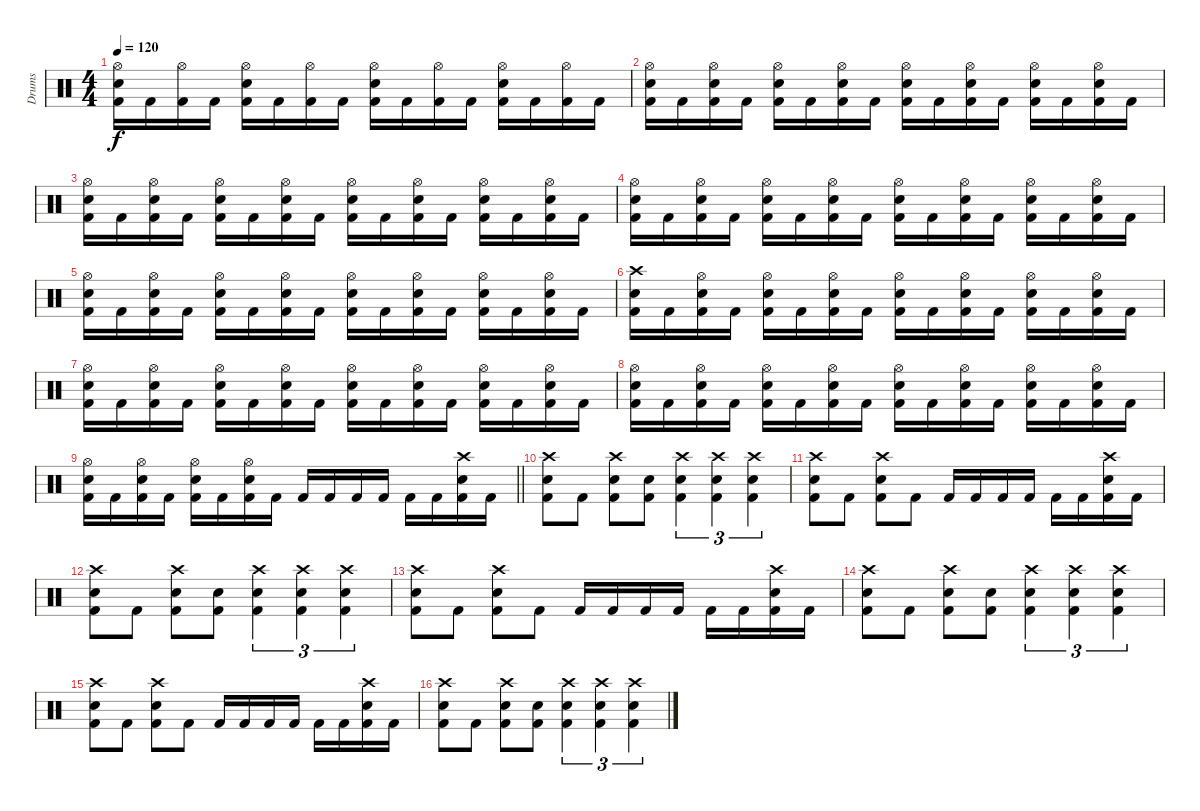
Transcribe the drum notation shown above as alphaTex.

\track ("Drums" "Drums") {instrument percussion}
\staff {score}
\articulation defaults
\ts (4 4)
\tempo 120
\clef neutral
\ks c
("Hi-Hat (open)" "Electric Snare (hit)" "Kick (hit) 2").16{dy f} "Kick (hit) 2".16 ("Hi-Hat (open)" "Kick (hit) 2").16 "Kick (hit) 2".16 ("Hi-Hat (open)" "Electric Snare (hit)" "Kick (hit) 2").16 "Kick (hit) 2".16 ("Hi-Hat (open)" "Kick (hit) 2").16 "Kick (hit) 2".16 ("Hi-Hat (open)" "Electric Snare (hit)" "Kick (hit) 2").16 "Kick (hit) 2".16 ("Hi-Hat (open)" "Kick (hit) 2").16 "Kick (hit) 2".16 ("Hi-Hat (open)" "Electric Snare (hit)" "Kick (hit) 2").16 "Kick (hit) 2".16 ("Hi-Hat (open)" "Kick (hit) 2").16 "Kick (hit) 2".16 |
("Hi-Hat (open)" "Electric Snare (hit)" "Kick (hit) 2").16 "Kick (hit) 2".16 ("Hi-Hat (open)" "Electric Snare (hit)" "Kick (hit) 2").16 "Kick (hit) 2".16 ("Hi-Hat (open)" "Electric Snare (hit)" "Kick (hit) 2").16 "Kick (hit) 2".16 ("Hi-Hat (open)" "Electric Snare (hit)" "Kick (hit) 2").16 "Kick (hit) 2".16 ("Hi-Hat (open)" "Electric Snare (hit)" "Kick (hit) 2").16 "Kick (hit) 2".16 ("Hi-Hat (open)" "Electric Snare (hit)" "Kick (hit) 2").16 "Kick (hit) 2".16 ("Hi-Hat (open)" "Electric Snare (hit)" "Kick (hit) 2").16 "Kick (hit) 2".16 ("Hi-Hat (open)" "Electric Snare (hit)" "Kick (hit) 2").16 "Kick (hit) 2".16 |
("Hi-Hat (open)" "Electric Snare (hit)" "Kick (hit) 2").16 "Kick (hit) 2".16 ("Hi-Hat (open)" "Electric Snare (hit)" "Kick (hit) 2").16 "Kick (hit) 2".16 ("Hi-Hat (open)" "Electric Snare (hit)" "Kick (hit) 2").16 "Kick (hit) 2".16 ("Hi-Hat (open)" "Electric Snare (hit)" "Kick (hit) 2").16 "Kick (hit) 2".16 ("Hi-Hat (open)" "Electric Snare (hit)" "Kick (hit) 2").16 "Kick (hit) 2".16 ("Hi-Hat (open)" "Electric Snare (hit)" "Kick (hit) 2").16 "Kick (hit) 2".16 ("Hi-Hat (open)" "Electric Snare (hit)" "Kick (hit) 2").16 "Kick (hit) 2".16 ("Hi-Hat (open)" "Electric Snare (hit)" "Kick (hit) 2").16 "Kick (hit) 2".16 |
("Hi-Hat (open)" "Electric Snare (hit)" "Kick (hit) 2").16 "Kick (hit) 2".16 ("Hi-Hat (open)" "Electric Snare (hit)" "Kick (hit) 2").16 "Kick (hit) 2".16 ("Hi-Hat (open)" "Electric Snare (hit)" "Kick (hit) 2").16 "Kick (hit) 2".16 ("Hi-Hat (open)" "Electric Snare (hit)" "Kick (hit) 2").16 "Kick (hit) 2".16 ("Hi-Hat (open)" "Electric Snare (hit)" "Kick (hit) 2").16 "Kick (hit) 2".16 ("Hi-Hat (open)" "Electric Snare (hit)" "Kick (hit) 2").16 "Kick (hit) 2".16 ("Hi-Hat (open)" "Electric Snare (hit)" "Kick (hit) 2").16 "Kick (hit) 2".16 ("Hi-Hat (open)" "Electric Snare (hit)" "Kick (hit) 2").16 "Kick (hit) 2".16 |
("Hi-Hat (open)" "Electric Snare (hit)" "Kick (hit) 2").16 "Kick (hit) 2".16 ("Hi-Hat (open)" "Electric Snare (hit)" "Kick (hit) 2").16 "Kick (hit) 2".16 ("Hi-Hat (open)" "Electric Snare (hit)" "Kick (hit) 2").16 "Kick (hit) 2".16 ("Hi-Hat (open)" "Electric Snare (hit)" "Kick (hit) 2").16 "Kick (hit) 2".16 ("Hi-Hat (open)" "Electric Snare (hit)" "Kick (hit) 2").16 "Kick (hit) 2".16 ("Hi-Hat (open)" "Electric Snare (hit)" "Kick (hit) 2").16 "Kick (hit) 2".16 ("Hi-Hat (open)" "Electric Snare (hit)" "Kick (hit) 2").16 "Kick (hit) 2".16 ("Hi-Hat (open)" "Electric Snare (hit)" "Kick (hit) 2").16 "Kick (hit) 2".16 |
("Crash high (hit)" "Electric Snare (hit)" "Kick (hit) 2").16 "Kick (hit) 2".16 ("Hi-Hat (open)" "Electric Snare (hit)" "Kick (hit) 2").16 "Kick (hit) 2".16 ("Hi-Hat (open)" "Electric Snare (hit)" "Kick (hit) 2").16 "Kick (hit) 2".16 ("Hi-Hat (open)" "Electric Snare (hit)" "Kick (hit) 2").16 "Kick (hit) 2".16 ("Hi-Hat (open)" "Electric Snare (hit)" "Kick (hit) 2").16 "Kick (hit) 2".16 ("Hi-Hat (open)" "Electric Snare (hit)" "Kick (hit) 2").16 "Kick (hit) 2".16 ("Hi-Hat (open)" "Electric Snare (hit)" "Kick (hit) 2").16 "Kick (hit) 2".16 ("Hi-Hat (open)" "Electric Snare (hit)" "Kick (hit) 2").16 "Kick (hit) 2".16 |
("Hi-Hat (open)" "Electric Snare (hit)" "Kick (hit) 2").16 "Kick (hit) 2".16 ("Hi-Hat (open)" "Electric Snare (hit)" "Kick (hit) 2").16 "Kick (hit) 2".16 ("Hi-Hat (open)" "Electric Snare (hit)" "Kick (hit) 2").16 "Kick (hit) 2".16 ("Hi-Hat (open)" "Electric Snare (hit)" "Kick (hit) 2").16 "Kick (hit) 2".16 ("Hi-Hat (open)" "Electric Snare (hit)" "Kick (hit) 2").16 "Kick (hit) 2".16 ("Hi-Hat (open)" "Electric Snare (hit)" "Kick (hit) 2").16 "Kick (hit) 2".16 ("Hi-Hat (open)" "Electric Snare (hit)" "Kick (hit) 2").16 "Kick (hit) 2".16 ("Hi-Hat (open)" "Electric Snare (hit)" "Kick (hit) 2").16 "Kick (hit) 2".16 |
("Hi-Hat (open)" "Electric Snare (hit)" "Kick (hit) 2").16 "Kick (hit) 2".16 ("Hi-Hat (open)" "Electric Snare (hit)" "Kick (hit) 2").16 "Kick (hit) 2".16 ("Hi-Hat (open)" "Electric Snare (hit)" "Kick (hit) 2").16 "Kick (hit) 2".16 ("Hi-Hat (open)" "Electric Snare (hit)" "Kick (hit) 2").16 "Kick (hit) 2".16 ("Hi-Hat (open)" "Electric Snare (hit)" "Kick (hit) 2").16 "Kick (hit) 2".16 ("Hi-Hat (open)" "Electric Snare (hit)" "Kick (hit) 2").16 "Kick (hit) 2".16 ("Hi-Hat (open)" "Electric Snare (hit)" "Kick (hit) 2").16 "Kick (hit) 2".16 ("Hi-Hat (open)" "Electric Snare (hit)" "Kick (hit) 2").16 "Kick (hit) 2".16 |
\barLineRight lightlight
("Hi-Hat (open)" "Electric Snare (hit)" "Kick (hit) 2").16 "Kick (hit) 2".16 ("Hi-Hat (open)" "Electric Snare (hit)" "Kick (hit) 2").16 "Kick (hit) 2".16 ("Hi-Hat (open)" "Electric Snare (hit)" "Kick (hit) 2").16 "Kick (hit) 2".16 ("Hi-Hat (open)" "Electric Snare (hit)" "Kick (hit) 2").16 "Kick (hit) 2".16 "Kick (hit) 2".16 "Kick (hit) 2".16 "Kick (hit) 2".16 "Kick (hit) 2".16 "Kick (hit) 2".16 "Kick (hit) 2".16 ("Crash high (hit)" "Electric Snare (hit)" "Kick (hit) 2").16 "Kick (hit) 2".16 |
("Crash high (hit)" "Electric Snare (hit)" "Kick (hit) 2").8 "Kick (hit) 2".8 ("Crash high (hit)" "Electric Snare (hit)" "Kick (hit) 2").8 ("Electric Snare (hit)" "Kick (hit) 2").8 ("Crash high (hit)" "Electric Snare (hit)" "Kick (hit) 2").4{tu (3 2)} ("Crash high (hit)" "Electric Snare (hit)" "Kick (hit) 2").4{tu (3 2)} ("Crash high (hit)" "Electric Snare (hit)" "Kick (hit) 2").4{tu (3 2)} |
("Crash high (hit)" "Electric Snare (hit)" "Kick (hit) 2").8 "Kick (hit) 2".8 ("Crash high (hit)" "Electric Snare (hit)" "Kick (hit) 2").8 "Kick (hit) 2".8 "Kick (hit) 2".16 "Kick (hit) 2".16 "Kick (hit) 2".16 "Kick (hit) 2".16 "Kick (hit) 2".16 "Kick (hit) 2".16 ("Crash high (hit)" "Electric Snare (hit)" "Kick (hit) 2").16 "Kick (hit) 2".16 |
("Crash high (hit)" "Electric Snare (hit)" "Kick (hit) 2").8 "Kick (hit) 2".8 ("Crash high (hit)" "Electric Snare (hit)" "Kick (hit) 2").8 ("Electric Snare (hit)" "Kick (hit) 2").8 ("Crash high (hit)" "Electric Snare (hit)" "Kick (hit) 2").4{tu (3 2)} ("Crash high (hit)" "Electric Snare (hit)" "Kick (hit) 2").4{tu (3 2)} ("Crash high (hit)" "Electric Snare (hit)" "Kick (hit) 2").4{tu (3 2)} |
("Crash high (hit)" "Electric Snare (hit)" "Kick (hit) 2").8 "Kick (hit) 2".8 ("Crash high (hit)" "Electric Snare (hit)" "Kick (hit) 2").8 "Kick (hit) 2".8 "Kick (hit) 2".16 "Kick (hit) 2".16 "Kick (hit) 2".16 "Kick (hit) 2".16 "Kick (hit) 2".16 "Kick (hit) 2".16 ("Crash high (hit)" "Electric Snare (hit)" "Kick (hit) 2").16 "Kick (hit) 2".16 |
("Crash high (hit)" "Electric Snare (hit)" "Kick (hit) 2").8 "Kick (hit) 2".8 ("Crash high (hit)" "Electric Snare (hit)" "Kick (hit) 2").8 ("Electric Snare (hit)" "Kick (hit) 2").8 ("Crash high (hit)" "Electric Snare (hit)" "Kick (hit) 2").4{tu (3 2)} ("Crash high (hit)" "Electric Snare (hit)" "Kick (hit) 2").4{tu (3 2)} ("Crash high (hit)" "Electric Snare (hit)" "Kick (hit) 2").4{tu (3 2)} |
("Crash high (hit)" "Electric Snare (hit)" "Kick (hit) 2").8 "Kick (hit) 2".8 ("Crash high (hit)" "Electric Snare (hit)" "Kick (hit) 2").8 "Kick (hit) 2".8 "Kick (hit) 2".16 "Kick (hit) 2".16 "Kick (hit) 2".16 "Kick (hit) 2".16 "Kick (hit) 2".16 "Kick (hit) 2".16 ("Crash high (hit)" "Electric Snare (hit)" "Kick (hit) 2").16 "Kick (hit) 2".16 |
("Crash high (hit)" "Electric Snare (hit)" "Kick (hit) 2").8 "Kick (hit) 2".8 ("Crash high (hit)" "Electric Snare (hit)" "Kick (hit) 2").8 ("Electric Snare (hit)" "Kick (hit) 2").8 ("Crash high (hit)" "Electric Snare (hit)" "Kick (hit) 2").4{tu (3 2)} ("Crash high (hit)" "Electric Snare (hit)" "Kick (hit) 2").4{tu (3 2)} ("Crash high (hit)" "Electric Snare (hit)" "Kick (hit) 2").4{tu (3 2)}
